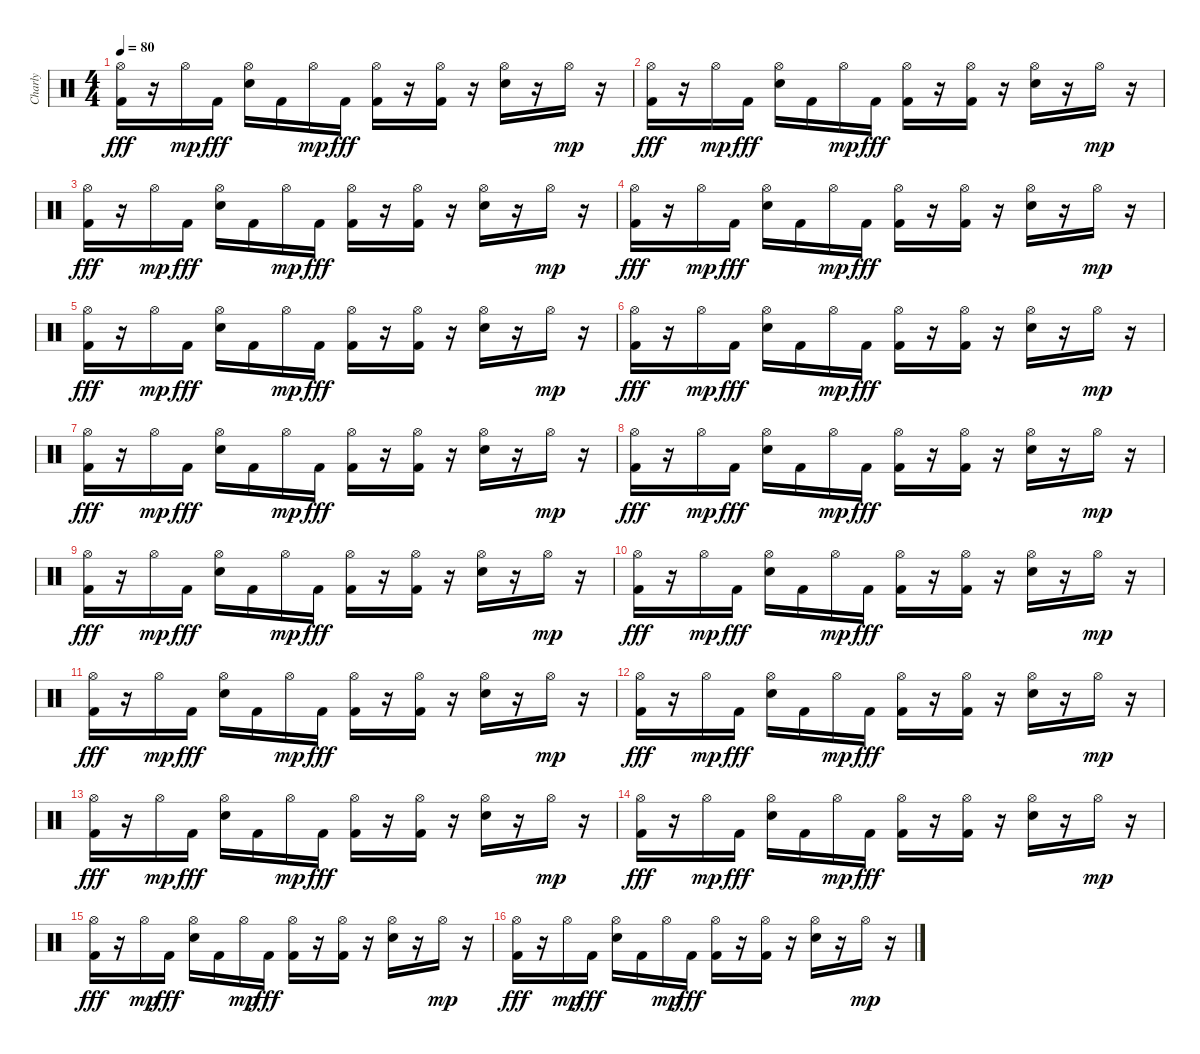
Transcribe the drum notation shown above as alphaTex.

\track ("Charly" "Charly") {instrument percussion}
\staff {score}
\articulation defaults
\ts (4 4)
\tempo 80
\clef neutral
\ks c
("Hi-Hat (open)" "Kick (hit) 2").16{dy fff} r.16 "Hi-Hat (open)".16{dy mp} "Kick (hit) 2".16{dy fff} ("Hi-Hat (open)" "Snare (hit) 2").16 "Kick (hit) 2".16 "Hi-Hat (open)".16{dy mp} "Kick (hit) 2".16{dy fff} ("Hi-Hat (open)" "Kick (hit) 2").16 r.16 ("Hi-Hat (open)" "Kick (hit) 2").16 r.16 ("Hi-Hat (open)" "Snare (hit) 2").16 r.16 "Hi-Hat (open)".16{dy mp} r.16 |
("Hi-Hat (open)" "Kick (hit) 2").16{dy fff} r.16 "Hi-Hat (open)".16{dy mp} "Kick (hit) 2".16{dy fff} ("Hi-Hat (open)" "Snare (hit) 2").16 "Kick (hit) 2".16 "Hi-Hat (open)".16{dy mp} "Kick (hit) 2".16{dy fff} ("Hi-Hat (open)" "Kick (hit) 2").16 r.16 ("Hi-Hat (open)" "Kick (hit) 2").16 r.16 ("Hi-Hat (open)" "Snare (hit) 2").16 r.16 "Hi-Hat (open)".16{dy mp} r.16 |
("Hi-Hat (open)" "Kick (hit) 2").16{dy fff} r.16 "Hi-Hat (open)".16{dy mp} "Kick (hit) 2".16{dy fff} ("Hi-Hat (open)" "Snare (hit) 2").16 "Kick (hit) 2".16 "Hi-Hat (open)".16{dy mp} "Kick (hit) 2".16{dy fff} ("Hi-Hat (open)" "Kick (hit) 2").16 r.16 ("Hi-Hat (open)" "Kick (hit) 2").16 r.16 ("Hi-Hat (open)" "Snare (hit) 2").16 r.16 "Hi-Hat (open)".16{dy mp} r.16 |
("Hi-Hat (open)" "Kick (hit) 2").16{dy fff} r.16 "Hi-Hat (open)".16{dy mp} "Kick (hit) 2".16{dy fff} ("Hi-Hat (open)" "Snare (hit) 2").16 "Kick (hit) 2".16 "Hi-Hat (open)".16{dy mp} "Kick (hit) 2".16{dy fff} ("Hi-Hat (open)" "Kick (hit) 2").16 r.16 ("Hi-Hat (open)" "Kick (hit) 2").16 r.16 ("Hi-Hat (open)" "Snare (hit) 2").16 r.16 "Hi-Hat (open)".16{dy mp} r.16 |
("Hi-Hat (open)" "Kick (hit) 2").16{dy fff} r.16 "Hi-Hat (open)".16{dy mp} "Kick (hit) 2".16{dy fff} ("Hi-Hat (open)" "Snare (hit) 2").16 "Kick (hit) 2".16 "Hi-Hat (open)".16{dy mp} "Kick (hit) 2".16{dy fff} ("Hi-Hat (open)" "Kick (hit) 2").16 r.16 ("Hi-Hat (open)" "Kick (hit) 2").16 r.16 ("Hi-Hat (open)" "Snare (hit) 2").16 r.16 "Hi-Hat (open)".16{dy mp} r.16 |
("Hi-Hat (open)" "Kick (hit) 2").16{dy fff} r.16 "Hi-Hat (open)".16{dy mp} "Kick (hit) 2".16{dy fff} ("Hi-Hat (open)" "Snare (hit) 2").16 "Kick (hit) 2".16 "Hi-Hat (open)".16{dy mp} "Kick (hit) 2".16{dy fff} ("Hi-Hat (open)" "Kick (hit) 2").16 r.16 ("Hi-Hat (open)" "Kick (hit) 2").16 r.16 ("Hi-Hat (open)" "Snare (hit) 2").16 r.16 "Hi-Hat (open)".16{dy mp} r.16 |
("Hi-Hat (open)" "Kick (hit) 2").16{dy fff} r.16 "Hi-Hat (open)".16{dy mp} "Kick (hit) 2".16{dy fff} ("Hi-Hat (open)" "Snare (hit) 2").16 "Kick (hit) 2".16 "Hi-Hat (open)".16{dy mp} "Kick (hit) 2".16{dy fff} ("Hi-Hat (open)" "Kick (hit) 2").16 r.16 ("Hi-Hat (open)" "Kick (hit) 2").16 r.16 ("Hi-Hat (open)" "Snare (hit) 2").16 r.16 "Hi-Hat (open)".16{dy mp} r.16 |
("Hi-Hat (open)" "Kick (hit) 2").16{dy fff} r.16 "Hi-Hat (open)".16{dy mp} "Kick (hit) 2".16{dy fff} ("Hi-Hat (open)" "Snare (hit) 2").16 "Kick (hit) 2".16 "Hi-Hat (open)".16{dy mp} "Kick (hit) 2".16{dy fff} ("Hi-Hat (open)" "Kick (hit) 2").16 r.16 ("Hi-Hat (open)" "Kick (hit) 2").16 r.16 ("Hi-Hat (open)" "Snare (hit) 2").16 r.16 "Hi-Hat (open)".16{dy mp} r.16 |
("Hi-Hat (open)" "Kick (hit) 2").16{dy fff} r.16 "Hi-Hat (open)".16{dy mp} "Kick (hit) 2".16{dy fff} ("Hi-Hat (open)" "Snare (hit) 2").16 "Kick (hit) 2".16 "Hi-Hat (open)".16{dy mp} "Kick (hit) 2".16{dy fff} ("Hi-Hat (open)" "Kick (hit) 2").16 r.16 ("Hi-Hat (open)" "Kick (hit) 2").16 r.16 ("Hi-Hat (open)" "Snare (hit) 2").16 r.16 "Hi-Hat (open)".16{dy mp} r.16 |
("Hi-Hat (open)" "Kick (hit) 2").16{dy fff} r.16 "Hi-Hat (open)".16{dy mp} "Kick (hit) 2".16{dy fff} ("Hi-Hat (open)" "Snare (hit) 2").16 "Kick (hit) 2".16 "Hi-Hat (open)".16{dy mp} "Kick (hit) 2".16{dy fff} ("Hi-Hat (open)" "Kick (hit) 2").16 r.16 ("Hi-Hat (open)" "Kick (hit) 2").16 r.16 ("Hi-Hat (open)" "Snare (hit) 2").16 r.16 "Hi-Hat (open)".16{dy mp} r.16 |
("Hi-Hat (open)" "Kick (hit) 2").16{dy fff} r.16 "Hi-Hat (open)".16{dy mp} "Kick (hit) 2".16{dy fff} ("Hi-Hat (open)" "Snare (hit) 2").16 "Kick (hit) 2".16 "Hi-Hat (open)".16{dy mp} "Kick (hit) 2".16{dy fff} ("Hi-Hat (open)" "Kick (hit) 2").16 r.16 ("Hi-Hat (open)" "Kick (hit) 2").16 r.16 ("Hi-Hat (open)" "Snare (hit) 2").16 r.16 "Hi-Hat (open)".16{dy mp} r.16 |
("Hi-Hat (open)" "Kick (hit) 2").16{dy fff} r.16 "Hi-Hat (open)".16{dy mp} "Kick (hit) 2".16{dy fff} ("Hi-Hat (open)" "Snare (hit) 2").16 "Kick (hit) 2".16 "Hi-Hat (open)".16{dy mp} "Kick (hit) 2".16{dy fff} ("Hi-Hat (open)" "Kick (hit) 2").16 r.16 ("Hi-Hat (open)" "Kick (hit) 2").16 r.16 ("Hi-Hat (open)" "Snare (hit) 2").16 r.16 "Hi-Hat (open)".16{dy mp} r.16 |
("Hi-Hat (open)" "Kick (hit) 2").16{dy fff} r.16 "Hi-Hat (open)".16{dy mp} "Kick (hit) 2".16{dy fff} ("Hi-Hat (open)" "Snare (hit) 2").16 "Kick (hit) 2".16 "Hi-Hat (open)".16{dy mp} "Kick (hit) 2".16{dy fff} ("Hi-Hat (open)" "Kick (hit) 2").16 r.16 ("Hi-Hat (open)" "Kick (hit) 2").16 r.16 ("Hi-Hat (open)" "Snare (hit) 2").16 r.16 "Hi-Hat (open)".16{dy mp} r.16 |
("Hi-Hat (open)" "Kick (hit) 2").16{dy fff} r.16 "Hi-Hat (open)".16{dy mp} "Kick (hit) 2".16{dy fff} ("Hi-Hat (open)" "Snare (hit) 2").16 "Kick (hit) 2".16 "Hi-Hat (open)".16{dy mp} "Kick (hit) 2".16{dy fff} ("Hi-Hat (open)" "Kick (hit) 2").16 r.16 ("Hi-Hat (open)" "Kick (hit) 2").16 r.16 ("Hi-Hat (open)" "Snare (hit) 2").16 r.16 "Hi-Hat (open)".16{dy mp} r.16 |
("Hi-Hat (open)" "Kick (hit) 2").16{dy fff} r.16 "Hi-Hat (open)".16{dy mp} "Kick (hit) 2".16{dy fff} ("Hi-Hat (open)" "Snare (hit) 2").16 "Kick (hit) 2".16 "Hi-Hat (open)".16{dy mp} "Kick (hit) 2".16{dy fff} ("Hi-Hat (open)" "Kick (hit) 2").16 r.16 ("Hi-Hat (open)" "Kick (hit) 2").16 r.16 ("Hi-Hat (open)" "Snare (hit) 2").16 r.16 "Hi-Hat (open)".16{dy mp} r.16 |
("Hi-Hat (open)" "Kick (hit) 2").16{dy fff} r.16 "Hi-Hat (open)".16{dy mp} "Kick (hit) 2".16{dy fff} ("Hi-Hat (open)" "Snare (hit) 2").16 "Kick (hit) 2".16 "Hi-Hat (open)".16{dy mp} "Kick (hit) 2".16{dy fff} ("Hi-Hat (open)" "Kick (hit) 2").16 r.16 ("Hi-Hat (open)" "Kick (hit) 2").16 r.16 ("Hi-Hat (open)" "Snare (hit) 2").16 r.16 "Hi-Hat (open)".16{dy mp} r.16
